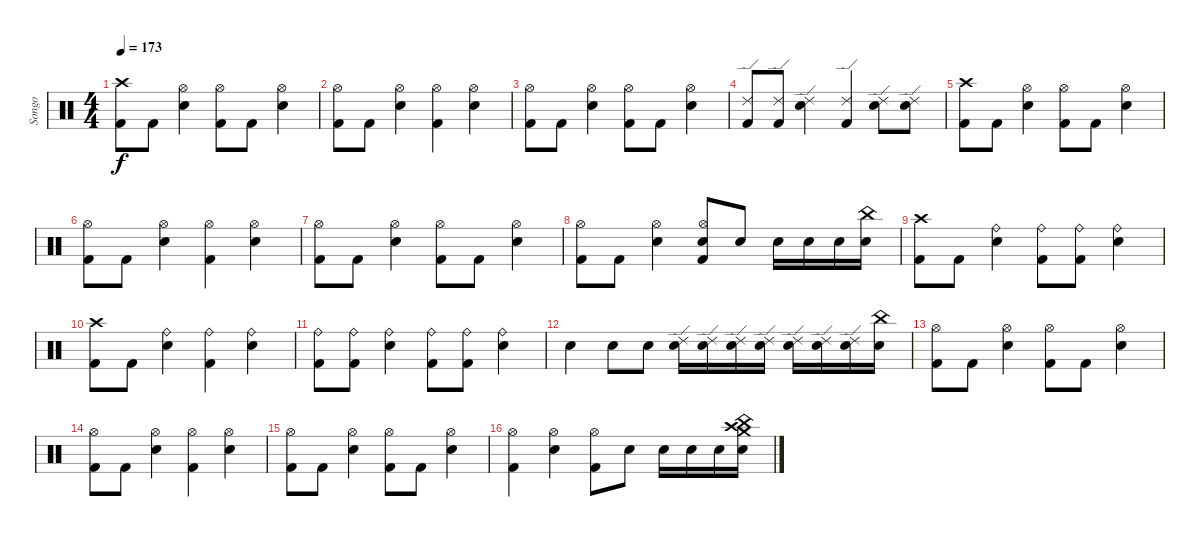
\track ("Songo" "Songo") {instrument percussion}
\staff {score}
\articulation defaults
\ts (4 4)
\tempo 173
\clef neutral
\ks c
("Crash high (hit)" "Kick (hit) 2").8{dy f} "Kick (hit) 2".8 ("Hi-Hat (open)" "Electric Snare (hit)").4 ("Hi-Hat (open)" "Kick (hit) 2").8 "Kick (hit) 2".8 ("Hi-Hat (open)" "Electric Snare (hit)").4 |
("Hi-Hat (open)" "Kick (hit) 2").8 "Kick (hit) 2".8 ("Hi-Hat (open)" "Electric Snare (hit)").4 ("Hi-Hat (open)" "Kick (hit) 2").4 ("Hi-Hat (open)" "Electric Snare (hit)").4 |
("Hi-Hat (open)" "Kick (hit) 2").8 "Kick (hit) 2".8 ("Hi-Hat (open)" "Electric Snare (hit)").4 ("Hi-Hat (open)" "Kick (hit) 2").8 "Kick (hit) 2".8 ("Hi-Hat (open)" "Electric Snare (hit)").4 |
("Ride (edge) 2" "Kick (hit) 2").8 ("Ride (edge) 2" "Kick (hit) 2").8 ("Ride (edge) 2" "Electric Snare (hit)").4 ("Ride (edge) 2" "Kick (hit) 2").4 ("Ride (edge) 2" "Electric Snare (hit)").8 ("Ride (edge) 2" "Electric Snare (hit)").8 |
("Crash high (hit)" "Kick (hit) 2").8 "Kick (hit) 2".8 ("Hi-Hat (open)" "Electric Snare (hit)").4 ("Hi-Hat (open)" "Kick (hit) 2").8 "Kick (hit) 2".8 ("Hi-Hat (open)" "Electric Snare (hit)").4 |
("Hi-Hat (open)" "Kick (hit) 2").8 "Kick (hit) 2".8 ("Hi-Hat (open)" "Electric Snare (hit)").4 ("Hi-Hat (open)" "Kick (hit) 2").4 ("Hi-Hat (open)" "Electric Snare (hit)").4 |
("Hi-Hat (open)" "Kick (hit) 2").8 "Kick (hit) 2".8 ("Hi-Hat (open)" "Electric Snare (hit)").4 ("Hi-Hat (open)" "Kick (hit) 2").8 "Kick (hit) 2".8 ("Hi-Hat (open)" "Electric Snare (hit)").4 |
("Hi-Hat (open)" "Kick (hit) 2").8 "Kick (hit) 2".8 ("Hi-Hat (open)" "Electric Snare (hit)").4 ("Hi-Hat (open)" "Electric Snare (hit)" "Kick (hit) 2").8 "Electric Snare (hit)".8 "Electric Snare (hit)".16 "Electric Snare (hit)".16 "Electric Snare (hit)".16 ("China (hit)" "Electric Snare (hit)").16 |
("Crash high (hit)" "Kick (hit) 2").8 "Kick (hit) 2".8 ("Ride (bell)" "Electric Snare (hit)").4 ("Ride (bell)" "Kick (hit) 2").8 ("Ride (bell)" "Kick (hit) 2").8 ("Ride (bell)" "Electric Snare (hit)").4 |
("Crash high (hit)" "Kick (hit) 2").8 "Kick (hit) 2".8 ("Ride (bell)" "Electric Snare (hit)").4 ("Ride (bell)" "Kick (hit) 2").4 ("Ride (bell)" "Electric Snare (hit)").4 |
("Ride (bell)" "Kick (hit) 2").8 ("Ride (bell)" "Kick (hit) 2").8 ("Ride (bell)" "Electric Snare (hit)").4 ("Ride (bell)" "Kick (hit) 2").8 ("Ride (bell)" "Kick (hit) 2").8 ("Ride (bell)" "Electric Snare (hit)").4 |
"Electric Snare (hit)".4 "Electric Snare (hit)".8 "Electric Snare (hit)".8 ("Ride (edge) 2" "Electric Snare (hit)").16 ("Ride (edge) 2" "Electric Snare (hit)").16 ("Ride (edge) 2" "Electric Snare (hit)").16 ("Ride (edge) 2" "Electric Snare (hit)").16 ("Ride (edge) 2" "Electric Snare (hit)").16 ("Ride (edge) 2" "Electric Snare (hit)").16 ("Ride (edge) 2" "Electric Snare (hit)").16 ("China (hit)" "Electric Snare (hit)").16 |
("Hi-Hat (open)" "Kick (hit) 2").8 "Kick (hit) 2".8 ("Hi-Hat (open)" "Electric Snare (hit)").4 ("Hi-Hat (open)" "Kick (hit) 2").8 "Kick (hit) 2".8 ("Hi-Hat (open)" "Electric Snare (hit)").4 |
("Hi-Hat (open)" "Kick (hit) 2").8 "Kick (hit) 2".8 ("Hi-Hat (open)" "Electric Snare (hit)").4 ("Hi-Hat (open)" "Kick (hit) 2").4 ("Hi-Hat (open)" "Electric Snare (hit)").4 |
("Hi-Hat (open)" "Kick (hit) 2").8 "Kick (hit) 2".8 ("Hi-Hat (open)" "Electric Snare (hit)").4 ("Hi-Hat (open)" "Kick (hit) 2").8 "Kick (hit) 2".8 ("Hi-Hat (open)" "Electric Snare (hit)").4 |
("Hi-Hat (open)" "Kick (hit) 2").4 ("Hi-Hat (open)" "Electric Snare (hit)").4 ("Hi-Hat (open)" "Kick (hit) 2").8 "Electric Snare (hit)".8 "Electric Snare (hit)".16 "Electric Snare (hit)".16 "Electric Snare (hit)".16 ("China (hit)" "Crash high (hit)" "Crash medium (hit)" "Electric Snare (hit)").16
